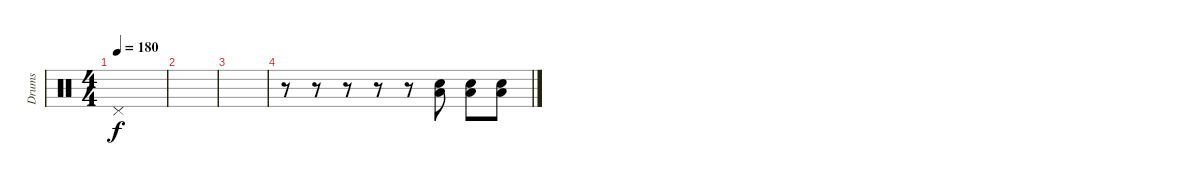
\track ("Drums" "Drums") {instrument percussion}
\staff {score}
\articulation defaults
\ts (4 4)
\tempo 180
\clef neutral
\ks c "Pedal Hi-Hat (hit)".1{dy f}
|
|
|
r.8 r.8 r.8 r.8 r.8 ("Electric Snare (hit)" "Low Floor Tom (hit)").8 ("Electric Snare (hit)" "Low Floor Tom (hit)").8 ("Electric Snare (hit)" "Low Floor Tom (hit)").8
